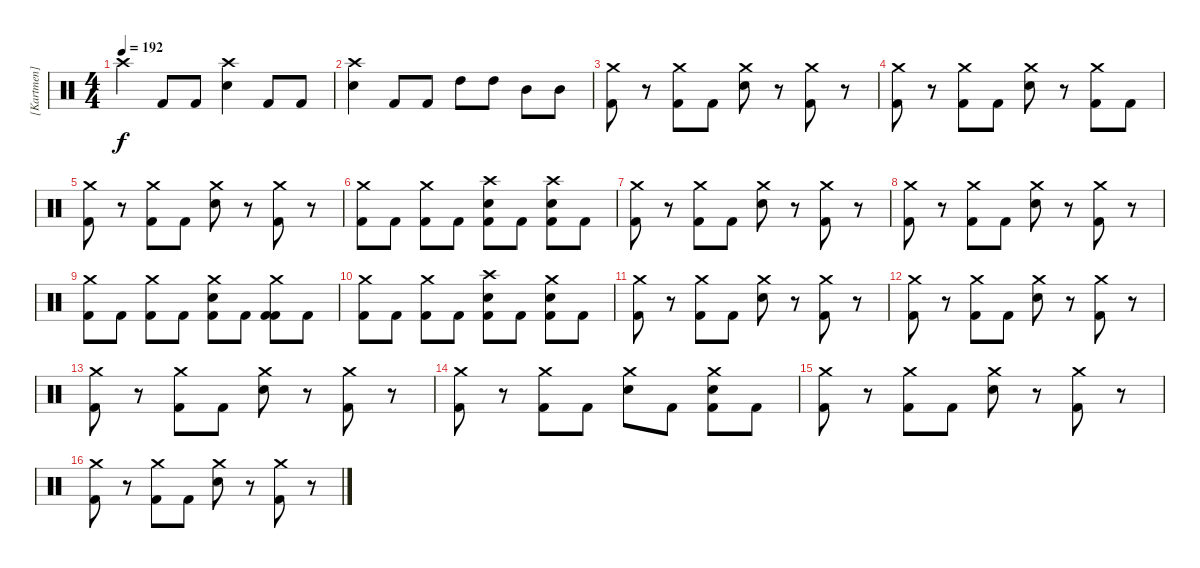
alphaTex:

\track ("[Kartmen] - Drums" "[Kartmen] ") {instrument percussion}
\staff {score}
\articulation defaults
\ts (4 4)
\tempo 192
\clef neutral
\ks c "Crash high (hit)".4{dy f} "Kick (hit) 2".8 "Kick (hit) 2".8
("Crash high (hit)" "Snare (hit) 2").4 "Kick (hit) 2".8 "Kick (hit) 2".8 |
("Crash high (hit)" "Snare (hit) 2").4 "Kick (hit) 2".8 "Kick (hit) 2".8 "High Tom (hit)".8 "High Tom (hit)".8 "Mid Tom (hit)".8 "Mid Tom (hit)".8 |
("Crash medium (hit)" "Kick (hit) 2").8 r.8 ("Crash medium (hit)" "Kick (hit) 2").8 "Kick (hit) 2".8 ("Crash medium (hit)" "Snare (hit) 2").8 r.8 ("Crash medium (hit)" "Kick (hit) 2").8 r.8 |
("Crash medium (hit)" "Kick (hit) 2").8 r.8 ("Crash medium (hit)" "Kick (hit) 2").8 "Kick (hit) 2".8 ("Crash medium (hit)" "Snare (hit) 2").8 r.8 ("Crash medium (hit)" "Kick (hit) 2").8 "Kick (hit) 2".8 |
("Crash medium (hit)" "Kick (hit) 2").8 r.8 ("Crash medium (hit)" "Kick (hit) 2").8 "Kick (hit) 2".8 ("Crash medium (hit)" "Snare (hit) 2").8 r.8 ("Crash medium (hit)" "Kick (hit) 2").8 r.8 |
("Crash medium (hit)" "Kick (hit) 2").8 "Kick (hit) 2".8 ("Crash medium (hit)" "Kick (hit) 2").8 "Kick (hit) 2".8 ("Crash high (hit)" "Kick (hit) 2" "Snare (hit) 2").8 "Kick (hit) 2".8 ("Crash high (hit)" "Kick (hit) 2" "Snare (hit) 2").8 "Kick (hit) 2".8 |
("Crash medium (hit)" "Kick (hit) 2").8 r.8 ("Crash medium (hit)" "Kick (hit) 2").8 "Kick (hit) 2".8 ("Crash medium (hit)" "Snare (hit) 2").8 r.8 ("Crash medium (hit)" "Kick (hit) 2").8 r.8 |
("Crash medium (hit)" "Kick (hit) 2").8 r.8 ("Crash medium (hit)" "Kick (hit) 2").8 "Kick (hit) 2".8 ("Crash medium (hit)" "Snare (hit) 2").8 r.8 ("Crash medium (hit)" "Kick (hit) 2").8 r.8 |
("Crash medium (hit)" "Kick (hit) 2").8 "Kick (hit) 2".8 ("Crash medium (hit)" "Kick (hit) 2").8 "Kick (hit) 2".8 ("Crash medium (hit)" "Kick (hit) 2" "Snare (hit) 2").8 "Kick (hit) 2".8 ("Crash medium (hit)" "Kick (hit) 2" "Kick (hit) 2").8 "Kick (hit) 2".8 |
("Crash medium (hit)" "Kick (hit) 2").8 "Kick (hit) 2".8 ("Crash medium (hit)" "Kick (hit) 2").8 "Kick (hit) 2".8 ("Crash high (hit)" "Kick (hit) 2"{tr (36 16)} "Snare (hit) 2").8 "Kick (hit) 2"{tr (36 16)}.8 ("Crash medium (hit)" "Kick (hit) 2"{tr (36 16)} "Snare (hit) 2").8 "Kick (hit) 2"{tr (36 16)}.8 |
("Crash medium (hit)" "Kick (hit) 2").8 r.8 ("Crash medium (hit)" "Kick (hit) 2").8 "Kick (hit) 2".8 ("Crash medium (hit)" "Snare (hit) 2").8 r.8 ("Crash medium (hit)" "Kick (hit) 2").8 r.8 |
("Crash medium (hit)" "Kick (hit) 2").8 r.8 ("Crash medium (hit)" "Kick (hit) 2").8 "Kick (hit) 2".8 ("Crash medium (hit)" "Snare (hit) 2").8 r.8 ("Crash medium (hit)" "Kick (hit) 2").8 r.8 |
("Crash medium (hit)" "Kick (hit) 2").8 r.8 ("Crash medium (hit)" "Kick (hit) 2").8 "Kick (hit) 2".8 ("Crash medium (hit)" "Snare (hit) 2").8 r.8 ("Crash medium (hit)" "Kick (hit) 2").8 r.8 |
("Crash medium (hit)" "Kick (hit) 2").8 r.8 ("Crash medium (hit)" "Kick (hit) 2").8 "Kick (hit) 2".8 ("Crash medium (hit)" "Snare (hit) 2").8 "Kick (hit) 2".8 ("Crash medium (hit)" "Kick (hit) 2" "Snare (hit) 2").8 "Kick (hit) 2".8 |
("Crash medium (hit)" "Kick (hit) 2").8 r.8 ("Crash medium (hit)" "Kick (hit) 2").8 "Kick (hit) 2".8 ("Crash medium (hit)" "Snare (hit) 2").8 r.8 ("Crash medium (hit)" "Kick (hit) 2").8 r.8 |
("Crash medium (hit)" "Kick (hit) 2").8 r.8 ("Crash medium (hit)" "Kick (hit) 2").8 "Kick (hit) 2".8 ("Crash medium (hit)" "Snare (hit) 2").8 r.8 ("Crash medium (hit)" "Kick (hit) 2").8 r.8
